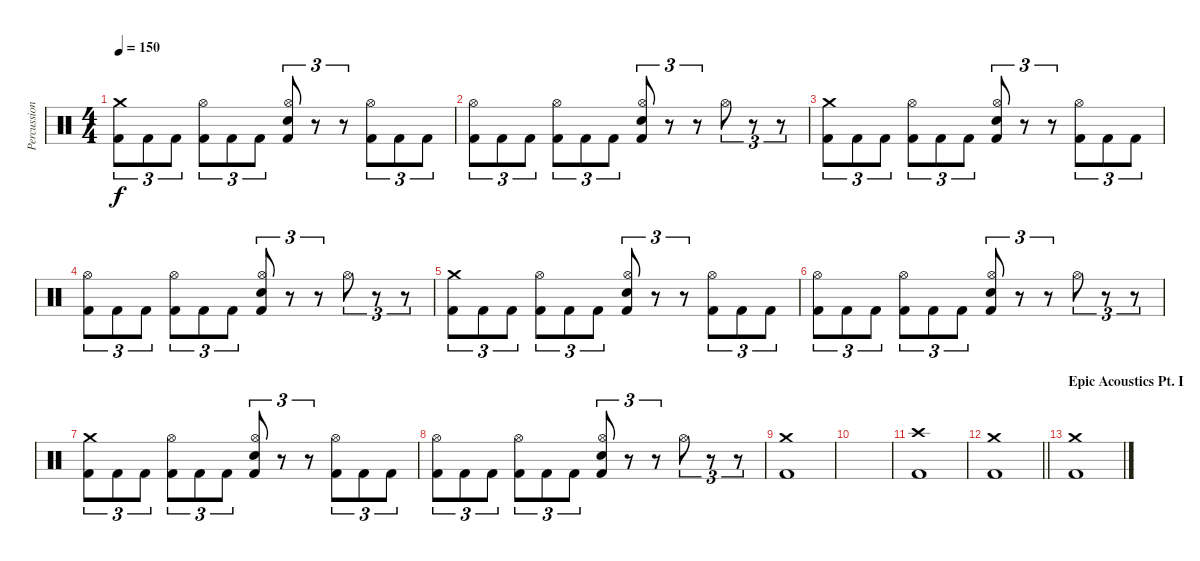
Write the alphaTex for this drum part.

\track ("Percussion" "Percussion") {instrument percussion}
\staff {score}
\articulation defaults
\ts (4 4)
\tempo 150
\clef neutral
\ks c
("Crash medium (hit)" "Kick (hit) 2").8{tu (3 2) dy f} "Kick (hit) 2".8{tu (3 2)} "Kick (hit) 2".8{tu (3 2)} ("Hi-Hat (open)" "Kick (hit) 2").8{tu (3 2)} "Kick (hit) 2".8{tu (3 2)} "Kick (hit) 2".8{tu (3 2)} ("Hi-Hat (open)" "Electric Snare (hit)" "Kick (hit) 2").8{tu (3 2)} r.8{tu (3 2)} r.8{tu (3 2)} ("Hi-Hat (open)" "Kick (hit) 2").8{tu (3 2)} "Kick (hit) 2".8{tu (3 2)} "Kick (hit) 2".8{tu (3 2)} |
("Hi-Hat (open)" "Kick (hit) 2").8{tu (3 2)} "Kick (hit) 2".8{tu (3 2)} "Kick (hit) 2".8{tu (3 2)} ("Hi-Hat (open)" "Kick (hit) 2").8{tu (3 2)} "Kick (hit) 2".8{tu (3 2)} "Kick (hit) 2".8{tu (3 2)} ("Hi-Hat (open)" "Electric Snare (hit)" "Kick (hit) 2").8{tu (3 2)} r.8{tu (3 2)} r.8{tu (3 2)} "Hi-Hat (open)".8{tu (3 2)} r.8{tu (3 2)} r.8{tu (3 2)} |
("Crash medium (hit)" "Kick (hit) 2").8{tu (3 2)} "Kick (hit) 2".8{tu (3 2)} "Kick (hit) 2".8{tu (3 2)} ("Hi-Hat (open)" "Kick (hit) 2").8{tu (3 2)} "Kick (hit) 2".8{tu (3 2)} "Kick (hit) 2".8{tu (3 2)} ("Hi-Hat (open)" "Electric Snare (hit)" "Kick (hit) 2").8{tu (3 2)} r.8{tu (3 2)} r.8{tu (3 2)} ("Hi-Hat (open)" "Kick (hit) 2").8{tu (3 2)} "Kick (hit) 2".8{tu (3 2)} "Kick (hit) 2".8{tu (3 2)} |
("Hi-Hat (open)" "Kick (hit) 2").8{tu (3 2)} "Kick (hit) 2".8{tu (3 2)} "Kick (hit) 2".8{tu (3 2)} ("Hi-Hat (open)" "Kick (hit) 2").8{tu (3 2)} "Kick (hit) 2".8{tu (3 2)} "Kick (hit) 2".8{tu (3 2)} ("Hi-Hat (open)" "Electric Snare (hit)" "Kick (hit) 2").8{tu (3 2)} r.8{tu (3 2)} r.8{tu (3 2)} "Hi-Hat (open)".8{tu (3 2)} r.8{tu (3 2)} r.8{tu (3 2)} |
("Crash medium (hit)" "Kick (hit) 2").8{tu (3 2)} "Kick (hit) 2".8{tu (3 2)} "Kick (hit) 2".8{tu (3 2)} ("Hi-Hat (open)" "Kick (hit) 2").8{tu (3 2)} "Kick (hit) 2".8{tu (3 2)} "Kick (hit) 2".8{tu (3 2)} ("Hi-Hat (open)" "Electric Snare (hit)" "Kick (hit) 2").8{tu (3 2)} r.8{tu (3 2)} r.8{tu (3 2)} ("Hi-Hat (open)" "Kick (hit) 2").8{tu (3 2)} "Kick (hit) 2".8{tu (3 2)} "Kick (hit) 2".8{tu (3 2)} |
("Hi-Hat (open)" "Kick (hit) 2").8{tu (3 2)} "Kick (hit) 2".8{tu (3 2)} "Kick (hit) 2".8{tu (3 2)} ("Hi-Hat (open)" "Kick (hit) 2").8{tu (3 2)} "Kick (hit) 2".8{tu (3 2)} "Kick (hit) 2".8{tu (3 2)} ("Hi-Hat (open)" "Electric Snare (hit)" "Kick (hit) 2").8{tu (3 2)} r.8{tu (3 2)} r.8{tu (3 2)} "Hi-Hat (open)".8{tu (3 2)} r.8{tu (3 2)} r.8{tu (3 2)} |
("Crash medium (hit)" "Kick (hit) 2").8{tu (3 2)} "Kick (hit) 2".8{tu (3 2)} "Kick (hit) 2".8{tu (3 2)} ("Hi-Hat (open)" "Kick (hit) 2").8{tu (3 2)} "Kick (hit) 2".8{tu (3 2)} "Kick (hit) 2".8{tu (3 2)} ("Hi-Hat (open)" "Electric Snare (hit)" "Kick (hit) 2").8{tu (3 2)} r.8{tu (3 2)} r.8{tu (3 2)} ("Hi-Hat (open)" "Kick (hit) 2").8{tu (3 2)} "Kick (hit) 2".8{tu (3 2)} "Kick (hit) 2".8{tu (3 2)} |
("Hi-Hat (open)" "Kick (hit) 2").8{tu (3 2)} "Kick (hit) 2".8{tu (3 2)} "Kick (hit) 2".8{tu (3 2)} ("Hi-Hat (open)" "Kick (hit) 2").8{tu (3 2)} "Kick (hit) 2".8{tu (3 2)} "Kick (hit) 2".8{tu (3 2)} ("Hi-Hat (open)" "Electric Snare (hit)" "Kick (hit) 2").8{tu (3 2)} r.8{tu (3 2)} r.8{tu (3 2)} "Hi-Hat (open)".8{tu (3 2)} r.8{tu (3 2)} r.8{tu (3 2)} |
("Crash medium (hit)" "Kick (hit) 2").1 |
|
("Crash high (hit)" "Kick (hit) 2").1 |
\barLineRight lightlight
("Crash medium (hit)" "Kick (hit) 2").1 |
\section ("" "Epic Acoustics Pt. I")
("Crash medium (hit)" "Kick (hit) 2").1
